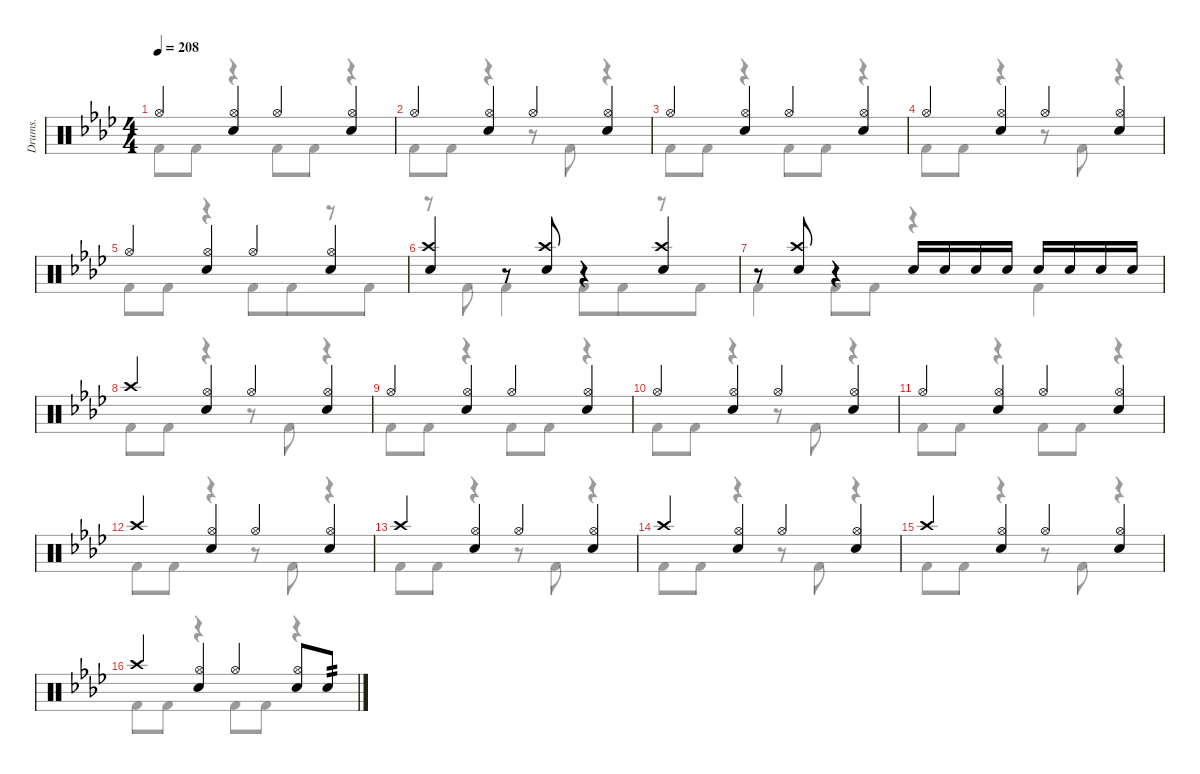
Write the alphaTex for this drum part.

\defaultSystemsLayout 4
\hideDynamics
\otherSystemsTrackNameOrientation horizontal
\track ("Drumkit" "Drums.") {defaultSystemsLayout 4 instrument percussion}
\staff {score}
\articulation defaults
\voice
\ts (4 4)
\tempo 208
\clef neutral
\ks fminor "Hi-Hat (open)"{acc forcenatural}.4{dy mf}
("Hi-Hat (open)"{acc forcenatural} "Snare (hit) 2"{acc forcenatural}).4 "Hi-Hat (open)"{acc forcenatural}.4 ("Hi-Hat (open)"{acc forcenatural} "Snare (hit) 2"{acc forcenatural}).4 |
"Hi-Hat (open)"{acc forcenatural}.4 ("Hi-Hat (open)"{acc forcenatural} "Snare (hit) 2"{acc forcenatural}).4 "Hi-Hat (open)"{acc forcenatural}.4 ("Hi-Hat (open)"{acc forcenatural} "Snare (hit) 2"{acc forcenatural}).4 |
"Hi-Hat (open)"{acc forcenatural}.4 ("Hi-Hat (open)"{acc forcenatural} "Snare (hit) 2"{acc forcenatural}).4 "Hi-Hat (open)"{acc forcenatural}.4 ("Hi-Hat (open)"{acc forcenatural} "Snare (hit) 2"{acc forcenatural}).4 |
"Hi-Hat (open)"{acc forcenatural}.4 ("Hi-Hat (open)"{acc forcenatural} "Snare (hit) 2"{acc forcenatural}).4 "Hi-Hat (open)"{acc forcenatural}.4 ("Hi-Hat (open)"{acc forcenatural} "Snare (hit) 2"{acc forcenatural}).4 |
"Hi-Hat (open)"{acc forcenatural}.4 ("Hi-Hat (open)"{acc forcenatural} "Snare (hit) 2"{acc forcenatural}).4 "Hi-Hat (open)"{acc forcenatural}.4 ("Hi-Hat (open)"{acc forcenatural} "Snare (hit) 2"{acc forcenatural}).4 |
("Crash high (hit)"{acc forcenatural} "Snare (hit) 2"{acc forcenatural}).4 r.8 ("Crash high (hit)"{acc forcenatural} "Snare (hit) 2"{acc forcenatural}).8 r.4 ("Crash high (hit)"{acc forcenatural} "Snare (hit) 2"{acc forcenatural}).4 |
r.8 ("Crash high (hit)"{acc forcenatural} "Snare (hit) 2"{acc forcenatural}).8 r.4 "Snare (hit) 2"{acc forcenatural}.16 "Snare (hit) 2"{acc forcenatural}.16 "Snare (hit) 2"{acc forcenatural}.16 "Snare (hit) 2"{acc forcenatural}.16 "Snare (hit) 2"{acc forcenatural}.16 "Snare (hit) 2"{acc forcenatural}.16 "Snare (hit) 2"{acc forcenatural}.16 "Snare (hit) 2"{acc forcenatural}.16 |
"Crash high (hit)"{acc forcenatural}.4 ("Hi-Hat (open)"{acc forcenatural} "Snare (hit) 2"{acc forcenatural}).4 "Hi-Hat (open)"{acc forcenatural}.4 ("Hi-Hat (open)"{acc forcenatural} "Snare (hit) 2"{acc forcenatural}).4 |
"Hi-Hat (open)"{acc forcenatural}.4 ("Hi-Hat (open)"{acc forcenatural} "Snare (hit) 2"{acc forcenatural}).4 "Hi-Hat (open)"{acc forcenatural}.4 ("Hi-Hat (open)"{acc forcenatural} "Snare (hit) 2"{acc forcenatural}).4 |
"Hi-Hat (open)"{acc forcenatural}.4 ("Hi-Hat (open)"{acc forcenatural} "Snare (hit) 2"{acc forcenatural}).4 "Hi-Hat (open)"{acc forcenatural}.4 ("Hi-Hat (open)"{acc forcenatural} "Snare (hit) 2"{acc forcenatural}).4 |
"Hi-Hat (open)"{acc forcenatural}.4 ("Hi-Hat (open)"{acc forcenatural} "Snare (hit) 2"{acc forcenatural}).4 "Hi-Hat (open)"{acc forcenatural}.4 ("Hi-Hat (open)"{acc forcenatural} "Snare (hit) 2"{acc forcenatural}).4 |
"Crash high (hit)"{acc forcenatural}.4 ("Hi-Hat (open)"{acc forcenatural} "Snare (hit) 2"{acc forcenatural}).4 "Hi-Hat (open)"{acc forcenatural}.4 ("Hi-Hat (open)"{acc forcenatural} "Snare (hit) 2"{acc forcenatural}).4 |
"Crash high (hit)"{acc forcenatural}.4 ("Hi-Hat (open)"{acc forcenatural} "Snare (hit) 2"{acc forcenatural}).4 "Hi-Hat (open)"{acc forcenatural}.4 ("Hi-Hat (open)"{acc forcenatural} "Snare (hit) 2"{acc forcenatural}).4 |
"Crash high (hit)"{acc forcenatural}.4 ("Hi-Hat (open)"{acc forcenatural} "Snare (hit) 2"{acc forcenatural}).4 "Hi-Hat (open)"{acc forcenatural}.4 ("Hi-Hat (open)"{acc forcenatural} "Snare (hit) 2"{acc forcenatural}).4 |
"Crash high (hit)"{acc forcenatural}.4 ("Hi-Hat (open)"{acc forcenatural} "Snare (hit) 2"{acc forcenatural}).4 "Hi-Hat (open)"{acc forcenatural}.4 ("Hi-Hat (open)"{acc forcenatural} "Snare (hit) 2"{acc forcenatural}).4 |
"Crash high (hit)"{acc forcenatural}.4 ("Hi-Hat (open)"{acc forcenatural} "Snare (hit) 2"{acc forcenatural}).4 "Hi-Hat (open)"{acc forcenatural}.4 ("Hi-Hat (open)"{acc forcenatural} "Snare (hit) 2"{acc forcenatural}).8 "Snare (hit) 2"{acc forcenatural}.8{tp 2}
\voice
\clef neutral
\ottava regular
\simile none
\ks fminor "Kick (hit) 2"{acc forcenatural}.8{dy mf} "Kick (hit) 2"{acc forcenatural}.8
r.4 "Kick (hit) 2"{acc forcenatural}.8 "Kick (hit) 2"{acc forcenatural}.8 r.4 |
"Kick (hit) 2"{acc forcenatural}.8 "Kick (hit) 2"{acc forcenatural}.8 r.4 r.8 "Kick (hit) 2"{acc forcenatural}.8 r.4 |
"Kick (hit) 2"{acc forcenatural}.8 "Kick (hit) 2"{acc forcenatural}.8 r.4 "Kick (hit) 2"{acc forcenatural}.8 "Kick (hit) 2"{acc forcenatural}.8 r.4 |
"Kick (hit) 2"{acc forcenatural}.8 "Kick (hit) 2"{acc forcenatural}.8 r.4 r.8 "Kick (hit) 2"{acc forcenatural}.8 r.4 |
"Kick (hit) 2"{acc forcenatural}.8 "Kick (hit) 2"{acc forcenatural}.8 r.4 "Kick (hit) 2"{acc forcenatural}.8 "Kick (hit) 2"{acc forcenatural}.8{beam merge} r.8{beam merge} "Kick (hit) 2"{acc forcenatural}.8 |
r.8 "Kick (hit) 2"{acc forcenatural}.8 "Kick (hit) 2"{acc forcenatural}.4 "Kick (hit) 2"{acc forcenatural}.8 "Kick (hit) 2"{acc forcenatural}.8{beam merge} r.8{beam merge} "Kick (hit) 2"{acc forcenatural}.8 |
"Kick (hit) 2"{acc forcenatural}.4 "Kick (hit) 2"{acc forcenatural}.8 "Kick (hit) 2"{acc forcenatural}.8 r.4 "Kick (hit) 2"{acc forcenatural}.4 |
"Kick (hit) 2"{acc forcenatural}.8 "Kick (hit) 2"{acc forcenatural}.8 r.4 r.8 "Kick (hit) 2"{acc forcenatural}.8 r.4 |
"Kick (hit) 2"{acc forcenatural}.8 "Kick (hit) 2"{acc forcenatural}.8 r.4 "Kick (hit) 2"{acc forcenatural}.8 "Kick (hit) 2"{acc forcenatural}.8 r.4 |
"Kick (hit) 2"{acc forcenatural}.8 "Kick (hit) 2"{acc forcenatural}.8 r.4 r.8 "Kick (hit) 2"{acc forcenatural}.8 r.4 |
"Kick (hit) 2"{acc forcenatural}.8 "Kick (hit) 2"{acc forcenatural}.8 r.4 "Kick (hit) 2"{acc forcenatural}.8 "Kick (hit) 2"{acc forcenatural}.8 r.4 |
"Kick (hit) 2"{acc forcenatural}.8 "Kick (hit) 2"{acc forcenatural}.8 r.4 r.8 "Kick (hit) 2"{acc forcenatural}.8 r.4 |
"Kick (hit) 2"{acc forcenatural}.8 "Kick (hit) 2"{acc forcenatural}.8 r.4 r.8 "Kick (hit) 2"{acc forcenatural}.8 r.4 |
"Kick (hit) 2"{acc forcenatural}.8 "Kick (hit) 2"{acc forcenatural}.8 r.4 r.8 "Kick (hit) 2"{acc forcenatural}.8 r.4 |
"Kick (hit) 2"{acc forcenatural}.8 "Kick (hit) 2"{acc forcenatural}.8 r.4 r.8 "Kick (hit) 2"{acc forcenatural}.8 r.4 |
"Kick (hit) 2"{acc forcenatural}.8 "Kick (hit) 2"{acc forcenatural}.8 r.4 "Kick (hit) 2"{acc forcenatural}.8 "Kick (hit) 2"{acc forcenatural}.8 r.4
